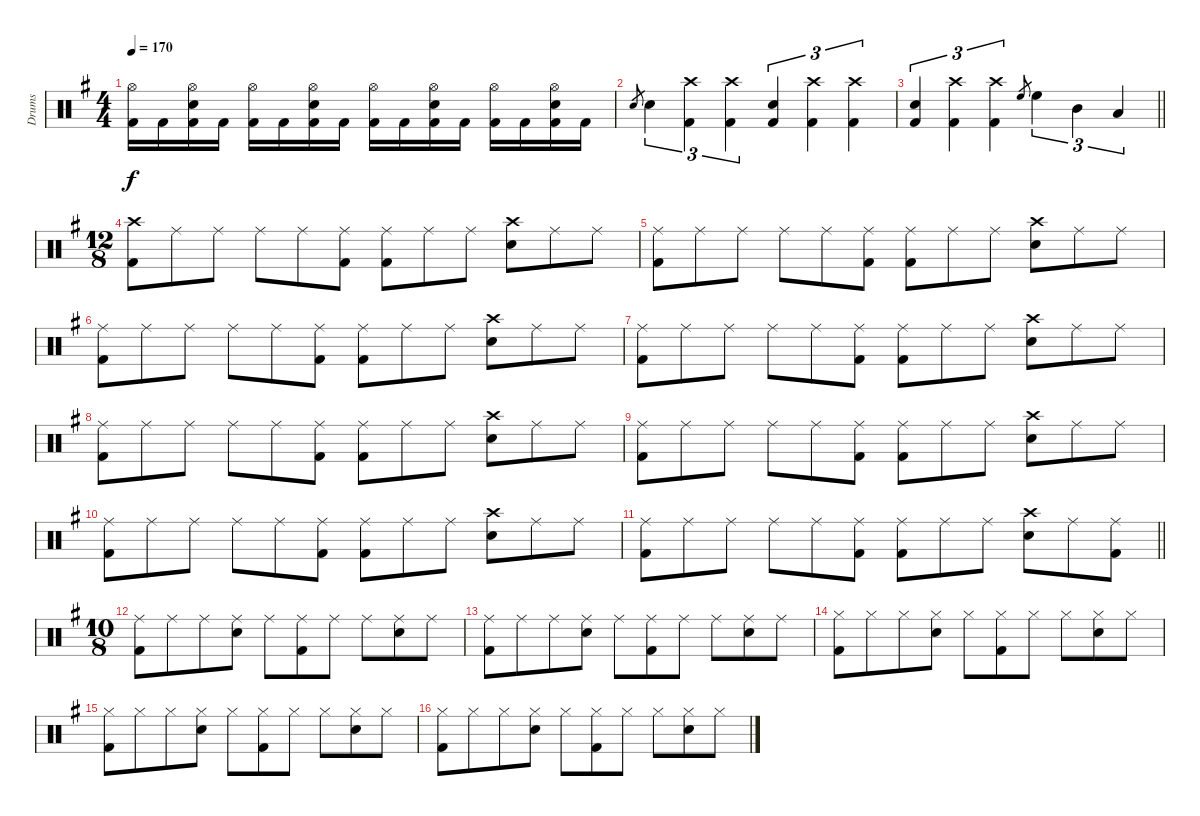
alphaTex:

\track ("Drums" "Drums") {instrument percussion}
\staff {score}
\articulation defaults
\ts (4 4)
\tempo 170
\clef neutral
\ks g
("Hi-Hat (open)" "Kick (hit) 2").16{dy f} "Kick (hit) 2".16 ("Hi-Hat (open)" "Snare (hit) 2" "Kick (hit) 2").16 "Kick (hit) 2".16 ("Hi-Hat (open)" "Kick (hit) 2").16 "Kick (hit) 2".16 ("Hi-Hat (open)" "Snare (hit) 2" "Kick (hit) 2").16 "Kick (hit) 2".16 ("Hi-Hat (open)" "Kick (hit) 2").16 "Kick (hit) 2".16 ("Hi-Hat (open)" "Snare (hit) 2" "Kick (hit) 2").16 "Kick (hit) 2".16 ("Hi-Hat (open)" "Kick (hit) 2").16 "Kick (hit) 2".16 ("Hi-Hat (open)" "Snare (hit) 2" "Kick (hit) 2").16 "Kick (hit) 2".16 |
"Snare (hit) 2".8{gr} "Snare (hit) 2".4{tu (3 2)} ("Crash high (hit)" "Kick (hit) 2").4{tu (3 2)} ("Crash high (hit)" "Kick (hit) 2").4{tu (3 2)} ("Snare (hit) 2" "Kick (hit) 2").4{tu (3 2)} ("Crash high (hit)" "Kick (hit) 2").4{tu (3 2)} ("Crash high (hit)" "Kick (hit) 2").4{tu (3 2)} |
\barLineRight lightlight
("Snare (hit) 2" "Kick (hit) 2").4{tu (3 2)} ("Crash high (hit)" "Kick (hit) 2").4{tu (3 2)} ("Crash high (hit)" "Kick (hit) 2").4{tu (3 2)} "High Floor Tom (hit)".8{gr} "High Floor Tom (hit)".4{tu (3 2)} "Mid Tom (hit)".4{tu (3 2)} "Low Tom (hit)".4{tu (3 2)} |
\ts (12 8)
("Crash high (hit)" "Kick (hit) 2").8 "Ride (middle)".8 "Ride (middle)".8 "Ride (middle)".8 "Ride (middle)".8 ("Ride (middle)" "Kick (hit) 2").8 ("Ride (middle)" "Kick (hit) 2").8 "Ride (middle)".8 "Ride (middle)".8 ("Crash high (hit)" "Snare (hit) 2").8 "Ride (middle)".8 "Ride (middle)".8 |
("Ride (middle)" "Kick (hit) 2").8 "Ride (middle)".8 "Ride (middle)".8 "Ride (middle)".8 "Ride (middle)".8 ("Ride (middle)" "Kick (hit) 2").8 ("Ride (middle)" "Kick (hit) 2").8 "Ride (middle)".8 "Ride (middle)".8 ("Crash high (hit)" "Snare (hit) 2").8 "Ride (middle)".8 "Ride (middle)".8 |
("Ride (middle)" "Kick (hit) 2").8 "Ride (middle)".8 "Ride (middle)".8 "Ride (middle)".8 "Ride (middle)".8 ("Ride (middle)" "Kick (hit) 2").8 ("Ride (middle)" "Kick (hit) 2").8 "Ride (middle)".8 "Ride (middle)".8 ("Crash high (hit)" "Snare (hit) 2").8 "Ride (middle)".8 "Ride (middle)".8 |
("Ride (middle)" "Kick (hit) 2").8 "Ride (middle)".8 "Ride (middle)".8 "Ride (middle)".8 "Ride (middle)".8 ("Ride (middle)" "Kick (hit) 2").8 ("Ride (middle)" "Kick (hit) 2").8 "Ride (middle)".8 "Ride (middle)".8 ("Crash high (hit)" "Snare (hit) 2").8 "Ride (middle)".8 "Ride (middle)".8 |
("Ride (middle)" "Kick (hit) 2").8 "Ride (middle)".8 "Ride (middle)".8 "Ride (middle)".8 "Ride (middle)".8 ("Ride (middle)" "Kick (hit) 2").8 ("Ride (middle)" "Kick (hit) 2").8 "Ride (middle)".8 "Ride (middle)".8 ("Crash high (hit)" "Snare (hit) 2").8 "Ride (middle)".8 "Ride (middle)".8 |
("Ride (middle)" "Kick (hit) 2").8 "Ride (middle)".8 "Ride (middle)".8 "Ride (middle)".8 "Ride (middle)".8 ("Ride (middle)" "Kick (hit) 2").8 ("Ride (middle)" "Kick (hit) 2").8 "Ride (middle)".8 "Ride (middle)".8 ("Crash high (hit)" "Snare (hit) 2").8 "Ride (middle)".8 "Ride (middle)".8 |
("Ride (middle)" "Kick (hit) 2").8 "Ride (middle)".8 "Ride (middle)".8 "Ride (middle)".8 "Ride (middle)".8 ("Ride (middle)" "Kick (hit) 2").8 ("Ride (middle)" "Kick (hit) 2").8 "Ride (middle)".8 "Ride (middle)".8 ("Crash high (hit)" "Snare (hit) 2").8 "Ride (middle)".8 "Ride (middle)".8 |
\barLineRight lightlight
("Ride (middle)" "Kick (hit) 2").8 "Ride (middle)".8 "Ride (middle)".8 "Ride (middle)".8 "Ride (middle)".8 ("Ride (middle)" "Kick (hit) 2").8 ("Ride (middle)" "Kick (hit) 2").8 "Ride (middle)".8 "Ride (middle)".8 ("Crash high (hit)" "Snare (hit) 2").8 "Ride (middle)".8 ("Ride (middle)" "Kick (hit) 2").8 |
\ts (10 8)
("Ride (middle)" "Kick (hit) 2").8 "Ride (middle)".8 "Ride (middle)".8 ("Ride (middle)" "Snare (hit) 2").8 "Ride (middle)".8 ("Ride (middle)" "Kick (hit) 2").8 "Ride (middle)".8 "Ride (middle)".8 ("Ride (middle)" "Snare (hit) 2").8 "Ride (middle)".8 |
("Ride (middle)" "Kick (hit) 2").8 "Ride (middle)".8 "Ride (middle)".8 ("Ride (middle)" "Snare (hit) 2").8 "Ride (middle)".8 ("Ride (middle)" "Kick (hit) 2").8 "Ride (middle)".8 "Ride (middle)".8 ("Ride (middle)" "Snare (hit) 2").8 "Ride (middle)".8 |
("Hi-Hat (closed)" "Kick (hit) 2").8 "Hi-Hat (closed)".8 "Hi-Hat (closed)".8 ("Hi-Hat (closed)" "Snare (hit) 2").8 "Hi-Hat (closed)".8 ("Hi-Hat (closed)" "Kick (hit) 2").8 "Hi-Hat (closed)".8 "Hi-Hat (closed)".8 ("Hi-Hat (closed)" "Snare (hit) 2").8 "Hi-Hat (closed)".8 |
("Hi-Hat (closed)" "Kick (hit) 2").8 "Hi-Hat (closed)".8 "Hi-Hat (closed)".8 ("Hi-Hat (closed)" "Snare (hit) 2").8 "Hi-Hat (closed)".8 ("Hi-Hat (closed)" "Kick (hit) 2").8 "Hi-Hat (closed)".8 "Hi-Hat (closed)".8 ("Hi-Hat (closed)" "Snare (hit) 2").8 "Hi-Hat (closed)".8 |
("Hi-Hat (closed)" "Kick (hit) 2").8 "Hi-Hat (closed)".8 "Hi-Hat (closed)".8 ("Hi-Hat (closed)" "Snare (hit) 2").8 "Hi-Hat (closed)".8 ("Hi-Hat (closed)" "Kick (hit) 2").8 "Hi-Hat (closed)".8 "Hi-Hat (closed)".8 ("Hi-Hat (closed)" "Snare (hit) 2").8 "Hi-Hat (closed)".8
